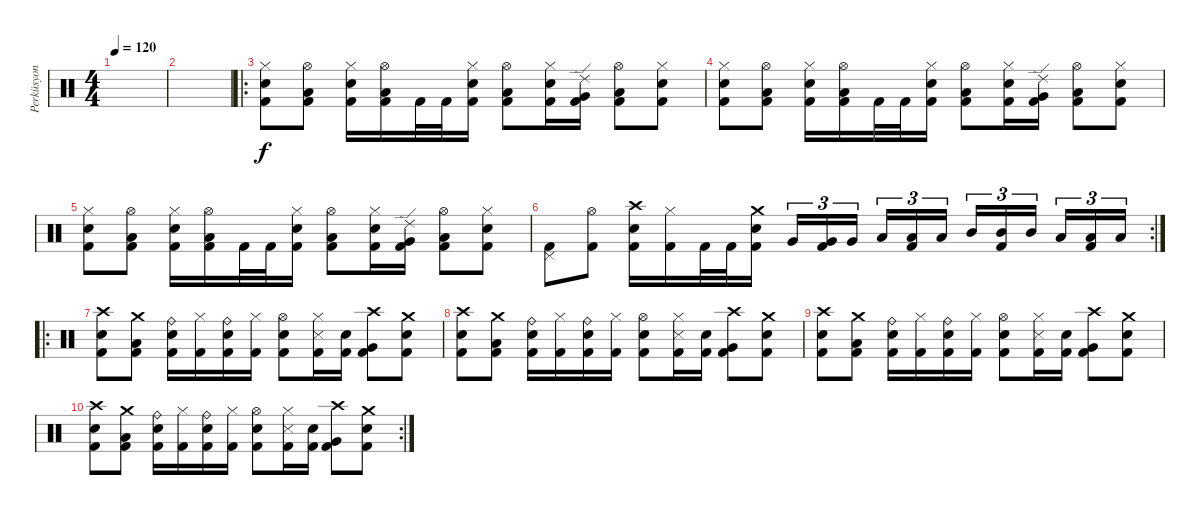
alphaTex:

\track ("Perküsyon" "Perküsyon") {instrument percussion}
\staff {score}
\articulation defaults
\ts (4 4)
\tempo 120
\clef neutral
\ks c
|
|
\ro
("Kick (hit) 2" "Hi-Hat (closed)" "Snare (hit) 2").8 ("Kick (hit) 2" "Low Tom (hit)" "Hi-Hat (open)").8 ("Kick (hit) 2" "Hi-Hat (closed)" "Snare (hit) 2").16 ("Kick (hit) 2" "Low Tom (hit)" "Hi-Hat (open)").16 "Kick (hit) 2".32 "Kick (hit) 2".32 ("Kick (hit) 2" "Hi-Hat (closed)" "Snare (hit) 2").16 ("Kick (hit) 2" "Low Tom (hit)" "Hi-Hat (open)").8 ("Kick (hit) 2" "Hi-Hat (closed)" "Snare (hit) 2").16 ("Kick (hit) 2" "Very Low Tom (hit)" "Ride (edge) 2").16 ("Kick (hit) 2" "Low Tom (hit)" "Hi-Hat (open)").8 ("Kick (hit) 2" "Hi-Hat (closed)" "Snare (hit) 2").8 |
("Kick (hit) 2" "Hi-Hat (closed)" "Snare (hit) 2").8 ("Kick (hit) 2" "Low Tom (hit)" "Hi-Hat (open)").8 ("Kick (hit) 2" "Hi-Hat (closed)" "Snare (hit) 2").16 ("Kick (hit) 2" "Low Tom (hit)" "Hi-Hat (open)").16 "Kick (hit) 2".32 "Kick (hit) 2".32 ("Kick (hit) 2" "Hi-Hat (closed)" "Snare (hit) 2").16 ("Kick (hit) 2" "Low Tom (hit)" "Hi-Hat (open)").8 ("Kick (hit) 2" "Hi-Hat (closed)" "Snare (hit) 2").16 ("Kick (hit) 2" "Very Low Tom (hit)" "Ride (edge) 2").16 ("Kick (hit) 2" "Low Tom (hit)" "Hi-Hat (open)").8 ("Kick (hit) 2" "Hi-Hat (closed)" "Snare (hit) 2").8 |
("Kick (hit) 2" "Hi-Hat (closed)" "Snare (hit) 2").8 ("Kick (hit) 2" "Low Tom (hit)" "Hi-Hat (open)").8 ("Kick (hit) 2" "Hi-Hat (closed)" "Snare (hit) 2").16 ("Kick (hit) 2" "Low Tom (hit)" "Hi-Hat (open)").16 "Kick (hit) 2".32 "Kick (hit) 2".32 ("Kick (hit) 2" "Hi-Hat (closed)" "Snare (hit) 2").16 ("Kick (hit) 2" "Low Tom (hit)" "Hi-Hat (open)").8 ("Kick (hit) 2" "Hi-Hat (closed)" "Snare (hit) 2").16 ("Kick (hit) 2" "Very Low Tom (hit)" "Ride (edge) 2").16 ("Kick (hit) 2" "Low Tom (hit)" "Hi-Hat (open)").8 ("Kick (hit) 2" "Hi-Hat (closed)" "Snare (hit) 2").8 |
\rc 2
("Kick (hit) 2" "Pedal Hi-Hat (hit)").8 ("Kick (hit) 2" "Hi-Hat (open)").8 ("Kick (hit) 2" "Crash high (hit)" "Snare (hit) 2").16 ("Kick (hit) 2" "Hi-Hat (closed)").16 "Kick (hit) 2".32 "Kick (hit) 2".32 ("Kick (hit) 2" "Crash medium (hit)" "Snare (hit) 2").16 "Very Low Tom (hit)".16{tu (3 2)} ("Very Low Tom (hit)" "Kick (hit) 2").16{tu (3 2)} "Very Low Tom (hit)".16{tu (3 2)} "Low Tom (hit)".16{tu (3 2)} ("Low Tom (hit)" "Kick (hit) 2").16{tu (3 2)} "Low Tom (hit)".16{tu (3 2)} "Mid Tom (hit)".16{tu (3 2)} ("Mid Tom (hit)" "Kick (hit) 2").16{tu (3 2)} "Mid Tom (hit)".16{tu (3 2)} "Low Tom (hit)".16{tu (3 2)} ("Low Tom (hit)" "Kick (hit) 2").16{tu (3 2)} "Low Tom (hit)".16{tu (3 2)} |
\ro
("Kick (hit) 2" "Crash high (hit)" "Snare (hit) 2").8 ("Kick (hit) 2" "Crash medium (hit)" "Low Tom (hit)").8 ("Kick (hit) 2" "Snare (hit) 2" "Ride (bell)").16 ("Kick (hit) 2" "Hi-Hat (closed)").16 ("Kick (hit) 2" "Snare (hit) 2" "Ride (bell)").16 ("Kick (hit) 2" "Hi-Hat (closed)").16 ("Kick (hit) 2" "Snare (hit) 2" "Hi-Hat (open)").8 ("Kick (hit) 2" "Hi-Hat (closed)" "Snare (side stick) 3").16 ("Kick (hit) 2" "Snare (hit) 2").16 ("Kick (hit) 2" "Very Low Tom (hit)" "Crash high (hit)").8 ("Kick (hit) 2" "Snare (hit) 2" "Crash medium (hit)").8 |
("Kick (hit) 2" "Crash high (hit)" "Snare (hit) 2").8 ("Kick (hit) 2" "Crash medium (hit)" "Low Tom (hit)").8 ("Kick (hit) 2" "Snare (hit) 2" "Ride (bell)").16 ("Kick (hit) 2" "Hi-Hat (closed)").16 ("Kick (hit) 2" "Snare (hit) 2" "Ride (bell)").16 ("Kick (hit) 2" "Hi-Hat (closed)").16 ("Kick (hit) 2" "Snare (hit) 2" "Hi-Hat (open)").8 ("Kick (hit) 2" "Hi-Hat (closed)" "Snare (side stick) 3").16 ("Kick (hit) 2" "Snare (hit) 2").16 ("Kick (hit) 2" "Very Low Tom (hit)" "Crash high (hit)").8 ("Kick (hit) 2" "Snare (hit) 2" "Crash medium (hit)").8 |
("Kick (hit) 2" "Crash high (hit)" "Snare (hit) 2").8 ("Kick (hit) 2" "Crash medium (hit)" "Low Tom (hit)").8 ("Kick (hit) 2" "Snare (hit) 2" "Ride (bell)").16 ("Kick (hit) 2" "Hi-Hat (closed)").16 ("Kick (hit) 2" "Snare (hit) 2" "Ride (bell)").16 ("Kick (hit) 2" "Hi-Hat (closed)").16 ("Kick (hit) 2" "Snare (hit) 2" "Hi-Hat (open)").8 ("Kick (hit) 2" "Hi-Hat (closed)" "Snare (side stick) 3").16 ("Kick (hit) 2" "Snare (hit) 2").16 ("Kick (hit) 2" "Very Low Tom (hit)" "Crash high (hit)").8 ("Kick (hit) 2" "Snare (hit) 2" "Crash medium (hit)").8 |
\rc 2
("Kick (hit) 2" "Crash high (hit)" "Snare (hit) 2").8 ("Kick (hit) 2" "Crash medium (hit)" "Low Tom (hit)").8 ("Kick (hit) 2" "Snare (hit) 2" "Ride (bell)").16 ("Kick (hit) 2" "Hi-Hat (closed)").16 ("Kick (hit) 2" "Snare (hit) 2" "Ride (bell)").16 ("Kick (hit) 2" "Hi-Hat (closed)").16 ("Kick (hit) 2" "Snare (hit) 2" "Hi-Hat (open)").8 ("Kick (hit) 2" "Hi-Hat (closed)" "Snare (side stick) 3").16 ("Kick (hit) 2" "Snare (hit) 2").16 ("Kick (hit) 2" "Very Low Tom (hit)" "Crash high (hit)").8 ("Kick (hit) 2" "Snare (hit) 2" "Crash medium (hit)").8
